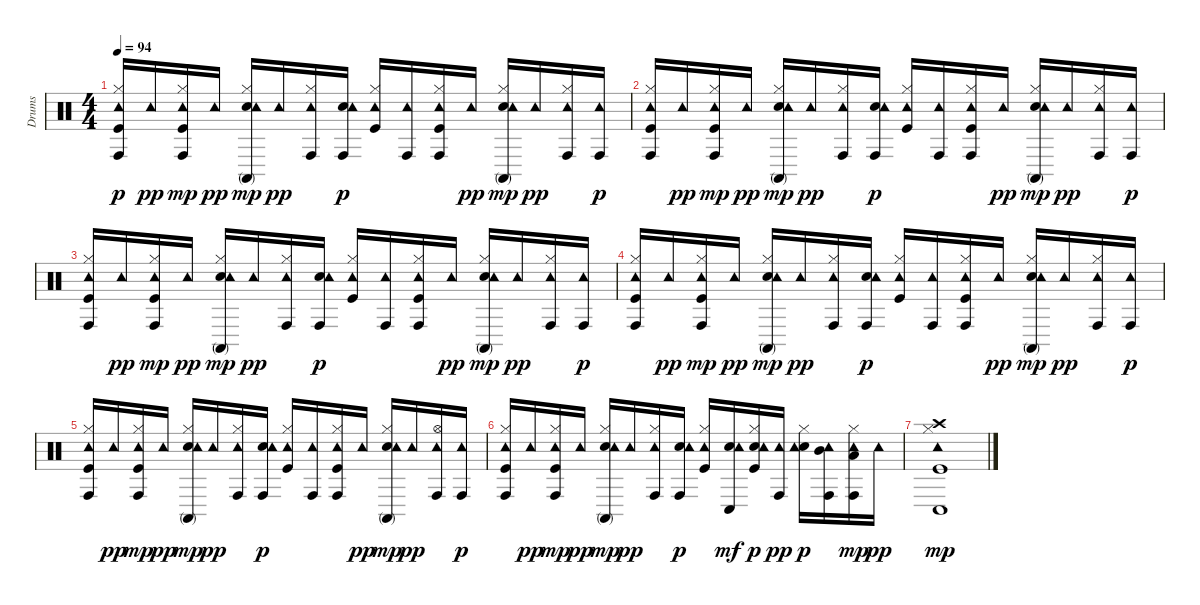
\track ("Drums" "Drums") {instrument percussion}
\staff {score}
\articulation defaults
\ts (4 4)
\tempo 94
\clef neutral
\ks c
("Kick (hit)" "Hi-Hat (closed)" "Tambourine (hit)" "Conga high (hit)").16{dy p} "Tambourine (hit)".16{dy pp} ("Kick (hit)" "Hi-Hat (closed)" "Tambourine (hit)" "Conga high (hit)").16{dy mp} "Tambourine (hit)".16{dy pp} ("Electric Snare (hit)" "Hi-Hat (closed)" "Tambourine (hit)" "Conga high (mute)").16{dy mp} "Tambourine (hit)".16{dy pp} ("Hi-Hat (closed)" "Tambourine (hit)" "Conga high (hit)").16 ("Electric Snare (hit)" "Tambourine (hit)" "Conga high (hit)").16{dy p} ("Kick (hit)" "Hi-Hat (closed)" "Tambourine (hit)").16 ("Tambourine (hit)" "Conga high (hit)").16 ("Kick (hit)" "Hi-Hat (closed)" "Tambourine (hit)" "Conga high (hit)").16 "Tambourine (hit)".16{dy pp} ("Electric Snare (hit)" "Hi-Hat (closed)" "Tambourine (hit)" "Conga high (mute)").16{dy mp} "Tambourine (hit)".16{dy pp} ("Hi-Hat (closed)" "Tambourine (hit)" "Conga high (hit)").16 ("Tambourine (hit)" "Conga high (hit)").16{dy p} |
("Kick (hit)" "Hi-Hat (closed)" "Tambourine (hit)" "Conga high (hit)").16 "Tambourine (hit)".16{dy pp} ("Kick (hit)" "Hi-Hat (closed)" "Tambourine (hit)" "Conga high (hit)").16{dy mp} "Tambourine (hit)".16{dy pp} ("Electric Snare (hit)" "Hi-Hat (closed)" "Tambourine (hit)" "Conga high (mute)").16{dy mp} "Tambourine (hit)".16{dy pp} ("Hi-Hat (closed)" "Tambourine (hit)" "Conga high (hit)").16 ("Electric Snare (hit)" "Tambourine (hit)" "Conga high (hit)").16{dy p} ("Kick (hit)" "Hi-Hat (closed)" "Tambourine (hit)").16 ("Tambourine (hit)" "Conga high (hit)").16 ("Kick (hit)" "Hi-Hat (closed)" "Tambourine (hit)" "Conga high (hit)").16 "Tambourine (hit)".16{dy pp} ("Electric Snare (hit)" "Hi-Hat (closed)" "Tambourine (hit)" "Conga high (mute)").16{dy mp} "Tambourine (hit)".16{dy pp} ("Hi-Hat (closed)" "Tambourine (hit)" "Conga high (hit)").16 ("Tambourine (hit)" "Conga high (hit)").16{dy p} |
("Kick (hit)" "Hi-Hat (closed)" "Tambourine (hit)" "Conga high (hit)").16 "Tambourine (hit)".16{dy pp} ("Kick (hit)" "Hi-Hat (closed)" "Tambourine (hit)" "Conga high (hit)").16{dy mp} "Tambourine (hit)".16{dy pp} ("Electric Snare (hit)" "Hi-Hat (closed)" "Tambourine (hit)" "Conga high (mute)").16{dy mp} "Tambourine (hit)".16{dy pp} ("Hi-Hat (closed)" "Tambourine (hit)" "Conga high (hit)").16 ("Electric Snare (hit)" "Tambourine (hit)" "Conga high (hit)").16{dy p} ("Kick (hit)" "Hi-Hat (closed)" "Tambourine (hit)").16 ("Tambourine (hit)" "Conga high (hit)").16 ("Kick (hit)" "Hi-Hat (closed)" "Tambourine (hit)" "Conga high (hit)").16 "Tambourine (hit)".16{dy pp} ("Electric Snare (hit)" "Hi-Hat (closed)" "Tambourine (hit)" "Conga high (mute)").16{dy mp} "Tambourine (hit)".16{dy pp} ("Hi-Hat (closed)" "Tambourine (hit)" "Conga high (hit)").16 ("Tambourine (hit)" "Conga high (hit)").16{dy p} |
("Kick (hit)" "Hi-Hat (closed)" "Tambourine (hit)" "Conga high (hit)").16 "Tambourine (hit)".16{dy pp} ("Kick (hit)" "Hi-Hat (closed)" "Tambourine (hit)" "Conga high (hit)").16{dy mp} "Tambourine (hit)".16{dy pp} ("Electric Snare (hit)" "Hi-Hat (closed)" "Tambourine (hit)" "Conga high (mute)").16{dy mp} "Tambourine (hit)".16{dy pp} ("Hi-Hat (closed)" "Tambourine (hit)" "Conga high (hit)").16 ("Electric Snare (hit)" "Tambourine (hit)" "Conga high (hit)").16{dy p} ("Kick (hit)" "Hi-Hat (closed)" "Tambourine (hit)").16 ("Tambourine (hit)" "Conga high (hit)").16 ("Kick (hit)" "Hi-Hat (closed)" "Tambourine (hit)" "Conga high (hit)").16 "Tambourine (hit)".16{dy pp} ("Electric Snare (hit)" "Hi-Hat (closed)" "Tambourine (hit)" "Conga high (mute)").16{dy mp} "Tambourine (hit)".16{dy pp} ("Hi-Hat (closed)" "Tambourine (hit)" "Conga high (hit)").16 ("Tambourine (hit)" "Conga high (hit)").16{dy p} |
("Kick (hit)" "Hi-Hat (closed)" "Tambourine (hit)" "Conga high (hit)").16 "Tambourine (hit)".16{dy pp} ("Kick (hit)" "Hi-Hat (closed)" "Tambourine (hit)" "Conga high (hit)").16{dy mp} "Tambourine (hit)".16{dy pp} ("Electric Snare (hit)" "Hi-Hat (closed)" "Tambourine (hit)" "Conga high (mute)").16{dy mp} "Tambourine (hit)".16{dy pp} ("Hi-Hat (closed)" "Tambourine (hit)" "Conga high (hit)").16 ("Electric Snare (hit)" "Tambourine (hit)" "Conga high (hit)").16{dy p} ("Kick (hit)" "Hi-Hat (closed)" "Tambourine (hit)").16 ("Tambourine (hit)" "Conga high (hit)").16 ("Kick (hit)" "Hi-Hat (closed)" "Tambourine (hit)" "Conga high (hit)").16 "Tambourine (hit)".16{dy pp} ("Electric Snare (hit)" "Hi-Hat (closed)" "Tambourine (hit)" "Conga high (mute)").16{dy mp} "Tambourine (hit)".16{dy pp} ("Hi-Hat (open)" "Tambourine (hit)" "Conga high (hit)").16 ("Tambourine (hit)" "Conga high (hit)").16{dy p} |
("Kick (hit)" "Hi-Hat (closed)" "Tambourine (hit)" "Conga high (hit)").16 "Tambourine (hit)".16{dy pp} ("Kick (hit)" "Hi-Hat (closed)" "Tambourine (hit)" "Conga high (hit)").16{dy mp} "Tambourine (hit)".16{dy pp} ("Electric Snare (hit)" "Hi-Hat (closed)" "Tambourine (hit)" "Conga high (mute)").16{dy mp} "Tambourine (hit)".16{dy pp} ("Hi-Hat (closed)" "Tambourine (hit)" "Conga high (hit)").16 ("Electric Snare (hit)" "Tambourine (hit)" "Conga high (hit)").16{dy p} ("Kick (hit)" "Hi-Hat (closed)" "Tambourine (hit)").16 ("Electric Snare (hit)" "Tambourine (hit)" "Conga low (hit)").16{dy mf} ("Kick (hit)" "Electric Snare (hit)" "Hi-Hat (closed)" "Tambourine (hit)").16{dy p} ("Tambourine (hit)" "Conga high (hit)").16{dy pp} ("Electric Snare (hit)" "Hi-Hat (closed)" "Tambourine (hit)").16{dy p} ("Mid Tom (hit)" "Tambourine (hit)" "Conga high (hit)").16 ("Hi-Hat (closed)" "Low Tom (hit)" "Tambourine (hit)" "Conga high (hit)").16{dy mp} "Tambourine (hit)".16{dy pp} |
("Kick (hit)" "Hi-Hat (closed)" "Crash high (hit)" "Tambourine (hit)" "Conga low (hit)").1{dy mp}
